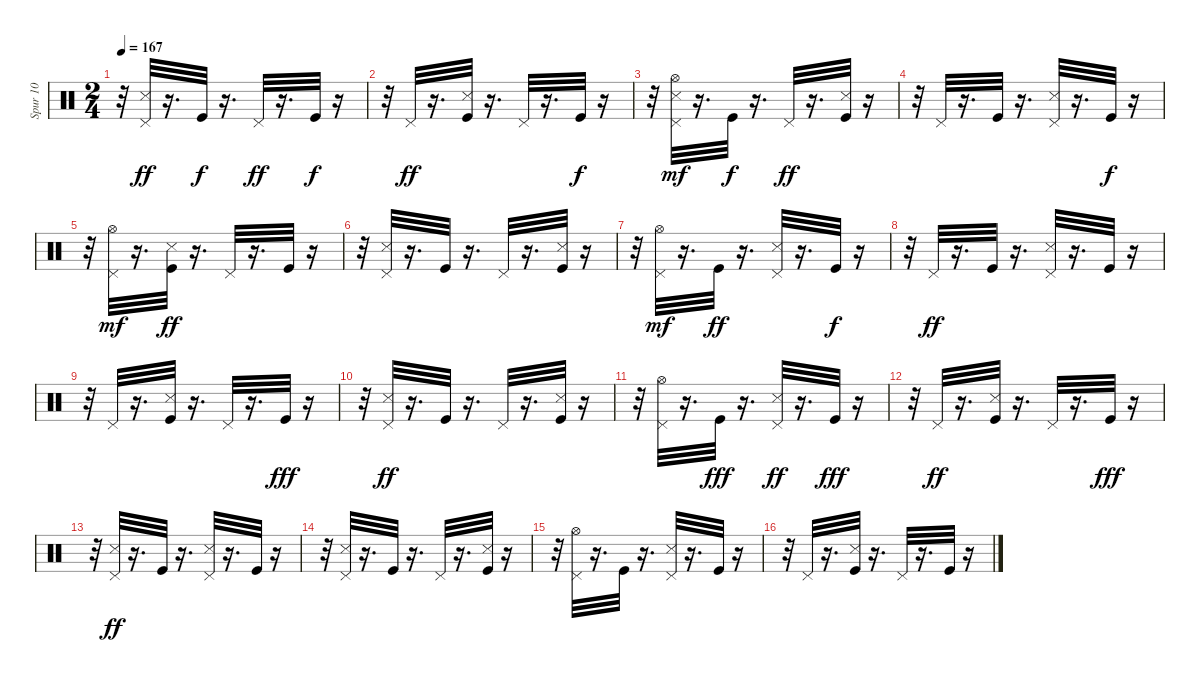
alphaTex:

\track ("Spur 10" "Spur 10") {instrument percussion}
\staff {score}
\articulation defaults
\ts (2 4)
\tempo 167
\clef neutral
\ks c
r.32{dy f} ("Pedal Hi-Hat (hit)" "Snare (side stick) 3").32{dy ff} r.16{d} "Kick (hit)".32{dy f} r.16{d} "Pedal Hi-Hat (hit)".32{dy ff} r.16{d} "Kick (hit)".32{dy f} r.16 |
r.32 "Pedal Hi-Hat (hit)".32{dy ff} r.16{d} ("Kick (hit)" "Snare (side stick) 3").32 r.16{d} "Pedal Hi-Hat (hit)".32 r.16{d} "Kick (hit)".32{dy f} r.16 |
r.32 ("Snare (side stick) 3" "Pedal Hi-Hat (hit)" "Hi-Hat (open)").32{dy mf} r.16{d} "Kick (hit)".32{dy f} r.16{d} "Pedal Hi-Hat (hit)".32{dy ff} r.16{d} ("Snare (side stick) 3" "Kick (hit)").32 r.16 |
r.32 "Pedal Hi-Hat (hit)".32 r.16{d} "Kick (hit)".32 r.16{d} ("Pedal Hi-Hat (hit)" "Snare (side stick) 3").32 r.16{d} "Kick (hit)".32{dy f} r.16 |
r.32 ("Pedal Hi-Hat (hit)" "Hi-Hat (open)").32{dy mf} r.16{d} ("Kick (hit)" "Snare (side stick) 3").32{dy ff} r.16{d} "Pedal Hi-Hat (hit)".32 r.16{d} "Kick (hit)".32 r.16 |
r.32 ("Pedal Hi-Hat (hit)" "Snare (side stick) 3").32 r.16{d} "Kick (hit)".32 r.16{d} "Pedal Hi-Hat (hit)".32 r.16{d} ("Kick (hit)" "Snare (side stick) 3").32 r.16 |
r.32 ("Pedal Hi-Hat (hit)" "Hi-Hat (open)").32{dy mf} r.16{d} "Kick (hit)".32{dy ff} r.16{d} ("Pedal Hi-Hat (hit)" "Snare (side stick) 3").32 r.16{d} "Kick (hit)".32{dy f} r.16 |
r.32 "Pedal Hi-Hat (hit)".32{dy ff} r.16{d} "Kick (hit)".32 r.16{d} ("Snare (side stick) 3" "Pedal Hi-Hat (hit)").32 r.16{d} "Kick (hit)".32 r.16 |
r.32 "Pedal Hi-Hat (hit)".32 r.16{d} ("Kick (hit)" "Snare (side stick) 3").32 r.16{d} "Pedal Hi-Hat (hit)".32 r.16{d} "Kick (hit)".32{dy fff} r.16 |
r.32 ("Snare (side stick) 3" "Pedal Hi-Hat (hit)").32{dy ff} r.16{d} "Kick (hit)".32 r.16{d} "Pedal Hi-Hat (hit)".32 r.16{d} ("Kick (hit)" "Snare (side stick) 3").32 r.16 |
r.32 ("Hi-Hat (open)" "Pedal Hi-Hat (hit)").32 r.16{d} "Kick (hit)".32{dy fff} r.16{d} ("Pedal Hi-Hat (hit)" "Snare (side stick) 3").32{dy ff} r.16{d} "Kick (hit)".32{dy fff} r.16 |
r.32 "Pedal Hi-Hat (hit)".32{dy ff} r.16{d} ("Kick (hit)" "Snare (side stick) 3").32 r.16{d} "Pedal Hi-Hat (hit)".32 r.16{d} "Kick (hit)".32{dy fff} r.16 |
r.32 ("Pedal Hi-Hat (hit)" "Snare (side stick) 3").32{dy ff} r.16{d} "Kick (hit)".32 r.16{d} ("Pedal Hi-Hat (hit)" "Snare (side stick) 3").32 r.16{d} "Kick (hit)".32 r.16 |
r.32 ("Pedal Hi-Hat (hit)" "Snare (side stick) 3").32 r.16{d} "Kick (hit)".32 r.16{d} "Pedal Hi-Hat (hit)".32 r.16{d} ("Kick (hit)" "Snare (side stick) 3").32 r.16 |
r.32 ("Hi-Hat (open)" "Pedal Hi-Hat (hit)").32 r.16{d} "Kick (hit)".32 r.16{d} ("Snare (side stick) 3" "Pedal Hi-Hat (hit)").32 r.16{d} "Kick (hit)".32 r.16 |
r.32 "Pedal Hi-Hat (hit)".32 r.16{d} ("Kick (hit)" "Snare (side stick) 3").32 r.16{d} "Pedal Hi-Hat (hit)".32 r.16{d} "Kick (hit)".32 r.16
